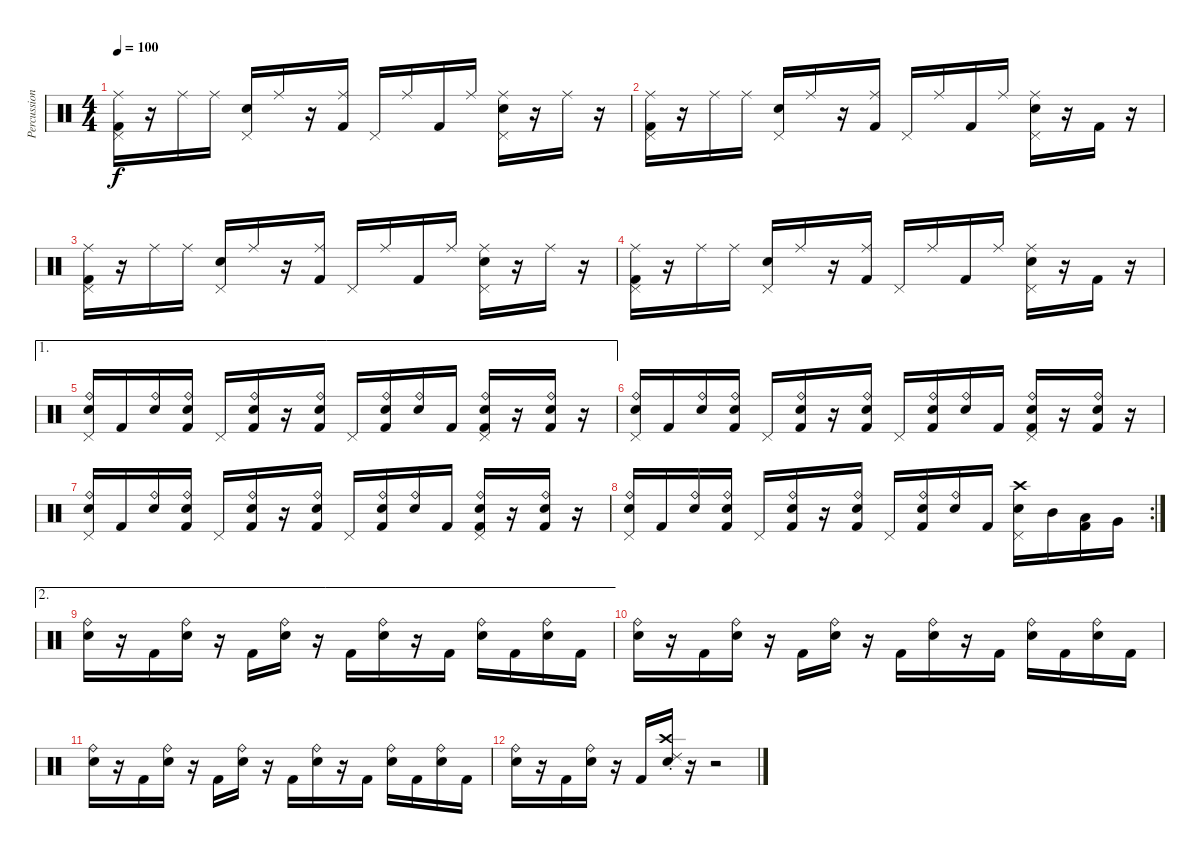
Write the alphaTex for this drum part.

\track ("Percussion" "Percussion") {instrument percussion}
\staff {score}
\articulation defaults
\ts (4 4)
\tempo 100
\clef neutral
\ks c
("Ride (middle)" "Pedal Hi-Hat (hit)" "Kick (hit) 2").16{dy f} r.16 "Ride (middle)".16 "Ride (middle)".16 ("Electric Snare (hit)" "Pedal Hi-Hat (hit)").16 "Ride (middle)".16 r.16 ("Ride (middle)" "Kick (hit) 2").16 "Pedal Hi-Hat (hit)".16 "Ride (middle)".16 "Kick (hit) 2".16 "Ride (middle)".16 ("Ride (middle)" "Electric Snare (hit)" "Pedal Hi-Hat (hit)").16 r.16 "Ride (middle)".16 r.16 |
("Ride (middle)" "Pedal Hi-Hat (hit)" "Kick (hit) 2").16 r.16 "Ride (middle)".16 "Ride (middle)".16 ("Electric Snare (hit)" "Pedal Hi-Hat (hit)").16 "Ride (middle)".16 r.16 ("Ride (middle)" "Kick (hit) 2").16 "Pedal Hi-Hat (hit)".16 "Ride (middle)".16 "Kick (hit) 2".16 "Ride (middle)".16 ("Ride (middle)" "Electric Snare (hit)" "Pedal Hi-Hat (hit)").16 r.16 "Kick (hit) 2".16 r.16 |
("Ride (middle)" "Pedal Hi-Hat (hit)" "Kick (hit) 2").16 r.16 "Ride (middle)".16 "Ride (middle)".16 ("Electric Snare (hit)" "Pedal Hi-Hat (hit)").16 "Ride (middle)".16 r.16 ("Ride (middle)" "Kick (hit) 2").16 "Pedal Hi-Hat (hit)".16 "Ride (middle)".16 "Kick (hit) 2".16 "Ride (middle)".16 ("Ride (middle)" "Electric Snare (hit)" "Pedal Hi-Hat (hit)").16 r.16 "Ride (middle)".16 r.16 |
("Ride (middle)" "Pedal Hi-Hat (hit)" "Kick (hit) 2").16 r.16 "Ride (middle)".16 "Ride (middle)".16 ("Electric Snare (hit)" "Pedal Hi-Hat (hit)").16 "Ride (middle)".16 r.16 ("Ride (middle)" "Kick (hit) 2").16 "Pedal Hi-Hat (hit)".16 "Ride (middle)".16 "Kick (hit) 2".16 "Ride (middle)".16 ("Ride (middle)" "Electric Snare (hit)" "Pedal Hi-Hat (hit)").16 r.16 "Kick (hit) 2".16 r.16 |
\ae 1
("Ride (bell)" "Electric Snare (hit)" "Pedal Hi-Hat (hit)").16 "Kick (hit) 2".16 ("Ride (bell)" "Electric Snare (hit)").16 ("Ride (bell)" "Electric Snare (hit)" "Kick (hit) 2").16 "Pedal Hi-Hat (hit)".16 ("Ride (bell)" "Electric Snare (hit)" "Kick (hit) 2").16 r.16 ("Ride (bell)" "Electric Snare (hit)" "Kick (hit) 2").16 "Pedal Hi-Hat (hit)".16 ("Ride (bell)" "Electric Snare (hit)" "Kick (hit) 2").16 ("Ride (bell)" "Electric Snare (hit)").16 "Kick (hit) 2".16 ("Ride (bell)" "Electric Snare (hit)" "Pedal Hi-Hat (hit)" "Kick (hit) 2").16 r.16 ("Ride (bell)" "Electric Snare (hit)" "Kick (hit) 2").16 r.16 |
("Ride (bell)" "Electric Snare (hit)" "Pedal Hi-Hat (hit)").16 "Kick (hit) 2".16 ("Ride (bell)" "Electric Snare (hit)").16 ("Ride (bell)" "Electric Snare (hit)" "Kick (hit) 2").16 "Pedal Hi-Hat (hit)".16 ("Ride (bell)" "Electric Snare (hit)" "Kick (hit) 2").16 r.16 ("Ride (bell)" "Electric Snare (hit)" "Kick (hit) 2").16 "Pedal Hi-Hat (hit)".16 ("Ride (bell)" "Electric Snare (hit)" "Kick (hit) 2").16 ("Ride (bell)" "Electric Snare (hit)").16 "Kick (hit) 2".16 ("Ride (bell)" "Electric Snare (hit)" "Pedal Hi-Hat (hit)" "Kick (hit) 2").16 r.16 ("Ride (bell)" "Electric Snare (hit)" "Kick (hit) 2").16 r.16 |
("Ride (bell)" "Electric Snare (hit)" "Pedal Hi-Hat (hit)").16 "Kick (hit) 2".16 ("Ride (bell)" "Electric Snare (hit)").16 ("Ride (bell)" "Electric Snare (hit)" "Kick (hit) 2").16 "Pedal Hi-Hat (hit)".16 ("Ride (bell)" "Electric Snare (hit)" "Kick (hit) 2").16 r.16 ("Ride (bell)" "Electric Snare (hit)" "Kick (hit) 2").16 "Pedal Hi-Hat (hit)".16 ("Ride (bell)" "Electric Snare (hit)" "Kick (hit) 2").16 ("Ride (bell)" "Electric Snare (hit)").16 "Kick (hit) 2".16 ("Ride (bell)" "Electric Snare (hit)" "Pedal Hi-Hat (hit)" "Kick (hit) 2").16 r.16 ("Ride (bell)" "Electric Snare (hit)" "Kick (hit) 2").16 r.16 |
\rc 2
("Ride (bell)" "Electric Snare (hit)" "Pedal Hi-Hat (hit)").16 "Kick (hit) 2".16 ("Ride (bell)" "Electric Snare (hit)").16 ("Ride (bell)" "Electric Snare (hit)" "Kick (hit) 2").16 "Pedal Hi-Hat (hit)".16 ("Ride (bell)" "Electric Snare (hit)" "Kick (hit) 2").16 r.16 ("Ride (bell)" "Electric Snare (hit)" "Kick (hit) 2").16 "Pedal Hi-Hat (hit)".16 ("Ride (bell)" "Electric Snare (hit)" "Kick (hit) 2").16 ("Ride (bell)" "Electric Snare (hit)").16 "Kick (hit) 2".16 ("Crash high (hit)" "Electric Snare (hit)" "Pedal Hi-Hat (hit)").16 "Mid Tom (hit)".16 ("Low Tom (hit)" "Kick (hit) 2").16 "Very Low Tom (hit)".16 |
\ae 2
("Ride (bell)" "Electric Snare (hit)").16 r.16 "Kick (hit) 2".16 ("Ride (bell)" "Electric Snare (hit)").16 r.16 "Kick (hit) 2".16 ("Ride (bell)" "Electric Snare (hit)").16 r.16 "Kick (hit) 2".16 ("Ride (bell)" "Electric Snare (hit)").16 r.16 "Kick (hit) 2".16 ("Ride (bell)" "Electric Snare (hit)").16 "Kick (hit) 2".16 ("Ride (bell)" "Electric Snare (hit)").16 "Kick (hit) 2".16 |
("Ride (bell)" "Electric Snare (hit)").16 r.16 "Kick (hit) 2".16 ("Ride (bell)" "Electric Snare (hit)").16 r.16 "Kick (hit) 2".16 ("Ride (bell)" "Electric Snare (hit)").16 r.16 "Kick (hit) 2".16 ("Ride (bell)" "Electric Snare (hit)").16 r.16 "Kick (hit) 2".16 ("Ride (bell)" "Electric Snare (hit)").16 "Kick (hit) 2".16 ("Ride (bell)" "Electric Snare (hit)").16 "Kick (hit) 2".16 |
("Ride (bell)" "Electric Snare (hit)").16 r.16 "Kick (hit) 2".16 ("Ride (bell)" "Electric Snare (hit)").16 r.16 "Kick (hit) 2".16 ("Ride (bell)" "Electric Snare (hit)").16 r.16 "Kick (hit) 2".16 ("Ride (bell)" "Electric Snare (hit)").16 r.16 "Kick (hit) 2".16 ("Ride (bell)" "Electric Snare (hit)").16 "Kick (hit) 2".16 ("Ride (bell)" "Electric Snare (hit)").16 "Kick (hit) 2".16 |
("Ride (bell)" "Electric Snare (hit)").16 r.16 "Kick (hit) 2".16 ("Ride (bell)" "Electric Snare (hit)").16 r.16 "Kick (hit) 2".16 ("Crash high (hit)" "Electric Snare (hit)" "Ride (choke) 2").16 r.16 r.2
